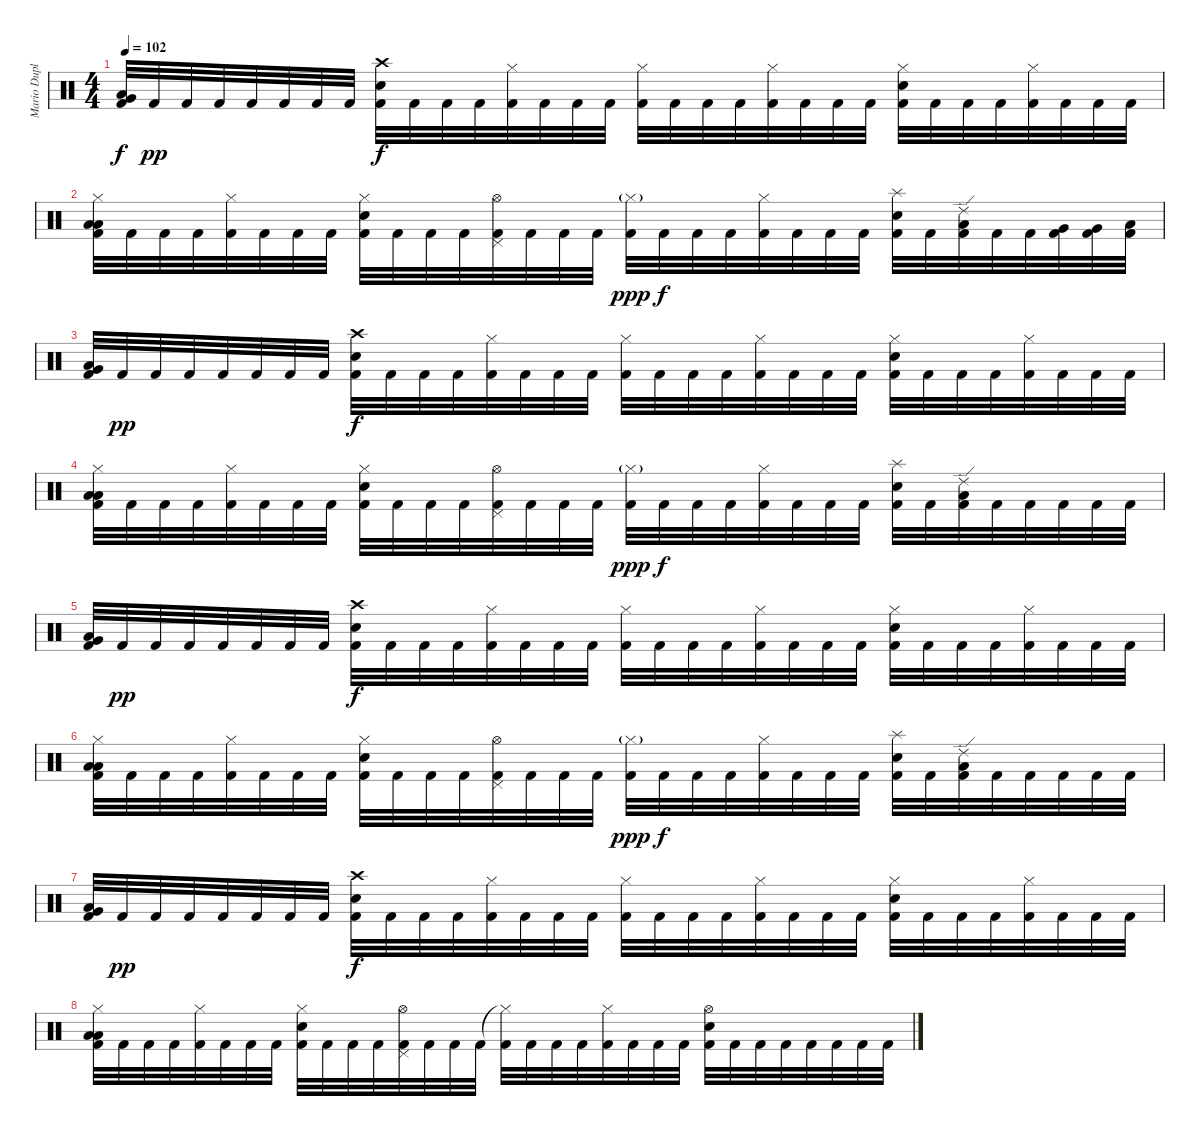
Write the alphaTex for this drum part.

\track ("Mario Duplantier" "Mario Dupl") {instrument percussion}
\staff {score}
\articulation defaults
\ts (4 4)
\tempo 102
\clef neutral
\ks c
("Low Floor Tom (hit)" "Very Low Tom (hit)" "Kick (hit) 2").32{dy f} "Kick (hit) 2".32{dy pp} "Kick (hit) 2".32 "Kick (hit) 2".32 "Kick (hit) 2".32 "Kick (hit) 2".32 "Kick (hit) 2".32 "Kick (hit) 2".32 ("Crash high (hit)" "Snare (hit) 2" "Kick (hit) 2").32{dy f} "Kick (hit) 2".32 "Kick (hit) 2".32 "Kick (hit) 2".32 ("Hi-Hat (closed)" "Kick (hit) 2").32 "Kick (hit) 2".32 "Kick (hit) 2".32 "Kick (hit) 2".32 ("Hi-Hat (closed)" "Kick (hit) 2").32 "Kick (hit) 2".32 "Kick (hit) 2".32 "Kick (hit) 2".32 ("Hi-Hat (closed)" "Kick (hit) 2").32 "Kick (hit) 2".32 "Kick (hit) 2".32 "Kick (hit) 2".32 ("Hi-Hat (closed)" "Snare (hit) 2" "Kick (hit) 2").32 "Kick (hit) 2".32 "Kick (hit) 2".32 "Kick (hit) 2".32 ("Hi-Hat (closed)" "Kick (hit) 2").32 "Kick (hit) 2".32 "Kick (hit) 2".32 "Kick (hit) 2".32 |
("Hi-Hat (closed)" "Low Floor Tom (hit)" "Low Floor Tom (hit)" "Kick (hit) 2").32 "Kick (hit) 2".32 "Kick (hit) 2".32 "Kick (hit) 2".32 ("Hi-Hat (closed)" "Kick (hit) 2").32 "Kick (hit) 2".32 "Kick (hit) 2".32 "Kick (hit) 2".32 ("Hi-Hat (closed)" "Snare (hit) 2" "Kick (hit) 2").32 "Kick (hit) 2".32 "Kick (hit) 2".32 "Kick (hit) 2".32 ("Hi-Hat (open)" "Pedal Hi-Hat (hit)" "Kick (hit) 2").32 "Kick (hit) 2".32 "Kick (hit) 2".32 "Kick (hit) 2".32 ("Hi-Hat (closed)"{g} "Kick (hit) 2").32{dy ppp} "Kick (hit) 2".32{dy f} "Kick (hit) 2".32 "Kick (hit) 2".32 ("Hi-Hat (closed)" "Kick (hit) 2").32 "Kick (hit) 2".32 "Kick (hit) 2".32 "Kick (hit) 2".32 ("Splash (hit)" "Snare (hit) 2" "Kick (hit) 2").32 "Kick (hit) 2".32 ("Ride (edge) 2" "Low Floor Tom (hit)" "Kick (hit) 2").32 "Kick (hit) 2".32 "Kick (hit) 2".32 ("Very Low Tom (hit)" "Kick (hit) 2").32 ("Very Low Tom (hit)" "Kick (hit) 2").32 ("Low Floor Tom (hit)" "Kick (hit) 2").32 |
("Low Floor Tom (hit)" "Very Low Tom (hit)" "Kick (hit) 2").32 "Kick (hit) 2".32{dy pp} "Kick (hit) 2".32 "Kick (hit) 2".32 "Kick (hit) 2".32 "Kick (hit) 2".32 "Kick (hit) 2".32 "Kick (hit) 2".32 ("Crash high (hit)" "Snare (hit) 2" "Kick (hit) 2").32{dy f} "Kick (hit) 2".32 "Kick (hit) 2".32 "Kick (hit) 2".32 ("Hi-Hat (closed)" "Kick (hit) 2").32 "Kick (hit) 2".32 "Kick (hit) 2".32 "Kick (hit) 2".32 ("Hi-Hat (closed)" "Kick (hit) 2").32 "Kick (hit) 2".32 "Kick (hit) 2".32 "Kick (hit) 2".32 ("Hi-Hat (closed)" "Kick (hit) 2").32 "Kick (hit) 2".32 "Kick (hit) 2".32 "Kick (hit) 2".32 ("Hi-Hat (closed)" "Snare (hit) 2" "Kick (hit) 2").32 "Kick (hit) 2".32 "Kick (hit) 2".32 "Kick (hit) 2".32 ("Hi-Hat (closed)" "Kick (hit) 2").32 "Kick (hit) 2".32 "Kick (hit) 2".32 "Kick (hit) 2".32 |
("Hi-Hat (closed)" "Low Floor Tom (hit)" "Low Floor Tom (hit)" "Kick (hit) 2").32 "Kick (hit) 2".32 "Kick (hit) 2".32 "Kick (hit) 2".32 ("Hi-Hat (closed)" "Kick (hit) 2").32 "Kick (hit) 2".32 "Kick (hit) 2".32 "Kick (hit) 2".32 ("Hi-Hat (closed)" "Snare (hit) 2" "Kick (hit) 2").32 "Kick (hit) 2".32 "Kick (hit) 2".32 "Kick (hit) 2".32 ("Hi-Hat (open)" "Pedal Hi-Hat (hit)" "Kick (hit) 2").32 "Kick (hit) 2".32 "Kick (hit) 2".32 "Kick (hit) 2".32 ("Hi-Hat (closed)"{g} "Kick (hit) 2").32{dy ppp} "Kick (hit) 2".32{dy f} "Kick (hit) 2".32 "Kick (hit) 2".32 ("Hi-Hat (closed)" "Kick (hit) 2").32 "Kick (hit) 2".32 "Kick (hit) 2".32 "Kick (hit) 2".32 ("Splash (hit)" "Snare (hit) 2" "Kick (hit) 2").32 "Kick (hit) 2".32 ("Ride (edge) 2" "Low Floor Tom (hit)" "Kick (hit) 2").32 "Kick (hit) 2".32 "Kick (hit) 2".32 "Kick (hit) 2".32 "Kick (hit) 2".32 "Kick (hit) 2".32 |
("Low Floor Tom (hit)" "Very Low Tom (hit)" "Kick (hit) 2").32 "Kick (hit) 2".32{dy pp} "Kick (hit) 2".32 "Kick (hit) 2".32 "Kick (hit) 2".32 "Kick (hit) 2".32 "Kick (hit) 2".32 "Kick (hit) 2".32 ("Crash high (hit)" "Snare (hit) 2" "Kick (hit) 2").32{dy f} "Kick (hit) 2".32 "Kick (hit) 2".32 "Kick (hit) 2".32 ("Hi-Hat (closed)" "Kick (hit) 2").32 "Kick (hit) 2".32 "Kick (hit) 2".32 "Kick (hit) 2".32 ("Hi-Hat (closed)" "Kick (hit) 2").32 "Kick (hit) 2".32 "Kick (hit) 2".32 "Kick (hit) 2".32 ("Hi-Hat (closed)" "Kick (hit) 2").32 "Kick (hit) 2".32 "Kick (hit) 2".32 "Kick (hit) 2".32 ("Hi-Hat (closed)" "Snare (hit) 2" "Kick (hit) 2").32 "Kick (hit) 2".32 "Kick (hit) 2".32 "Kick (hit) 2".32 ("Hi-Hat (closed)" "Kick (hit) 2").32 "Kick (hit) 2".32 "Kick (hit) 2".32 "Kick (hit) 2".32 |
("Hi-Hat (closed)" "Low Floor Tom (hit)" "Low Floor Tom (hit)" "Kick (hit) 2").32 "Kick (hit) 2".32 "Kick (hit) 2".32 "Kick (hit) 2".32 ("Hi-Hat (closed)" "Kick (hit) 2").32 "Kick (hit) 2".32 "Kick (hit) 2".32 "Kick (hit) 2".32 ("Hi-Hat (closed)" "Snare (hit) 2" "Kick (hit) 2").32 "Kick (hit) 2".32 "Kick (hit) 2".32 "Kick (hit) 2".32 ("Hi-Hat (open)" "Pedal Hi-Hat (hit)" "Kick (hit) 2").32 "Kick (hit) 2".32 "Kick (hit) 2".32 "Kick (hit) 2".32 ("Hi-Hat (closed)"{g} "Kick (hit) 2").32{dy ppp} "Kick (hit) 2".32{dy f} "Kick (hit) 2".32 "Kick (hit) 2".32 ("Hi-Hat (closed)" "Kick (hit) 2").32 "Kick (hit) 2".32 "Kick (hit) 2".32 "Kick (hit) 2".32 ("Splash (hit)" "Snare (hit) 2" "Kick (hit) 2").32 "Kick (hit) 2".32 ("Ride (edge) 2" "Low Floor Tom (hit)" "Kick (hit) 2").32 "Kick (hit) 2".32 "Kick (hit) 2".32 "Kick (hit) 2".32 "Kick (hit) 2".32 "Kick (hit) 2".32 |
("Low Floor Tom (hit)" "Very Low Tom (hit)" "Kick (hit) 2").32 "Kick (hit) 2".32{dy pp} "Kick (hit) 2".32 "Kick (hit) 2".32 "Kick (hit) 2".32 "Kick (hit) 2".32 "Kick (hit) 2".32 "Kick (hit) 2".32 ("Crash high (hit)" "Snare (hit) 2" "Kick (hit) 2").32{dy f} "Kick (hit) 2".32 "Kick (hit) 2".32 "Kick (hit) 2".32 ("Hi-Hat (closed)" "Kick (hit) 2").32 "Kick (hit) 2".32 "Kick (hit) 2".32 "Kick (hit) 2".32 ("Hi-Hat (closed)" "Kick (hit) 2").32 "Kick (hit) 2".32 "Kick (hit) 2".32 "Kick (hit) 2".32 ("Hi-Hat (closed)" "Kick (hit) 2").32 "Kick (hit) 2".32 "Kick (hit) 2".32 "Kick (hit) 2".32 ("Hi-Hat (closed)" "Snare (hit) 2" "Kick (hit) 2").32 "Kick (hit) 2".32 "Kick (hit) 2".32 "Kick (hit) 2".32 ("Hi-Hat (closed)" "Kick (hit) 2").32 "Kick (hit) 2".32 "Kick (hit) 2".32 "Kick (hit) 2".32 |
("Hi-Hat (closed)" "Low Floor Tom (hit)" "Low Floor Tom (hit)" "Kick (hit) 2").32 "Kick (hit) 2".32 "Kick (hit) 2".32 "Kick (hit) 2".32 ("Hi-Hat (closed)" "Kick (hit) 2").32 "Kick (hit) 2".32 "Kick (hit) 2".32 "Kick (hit) 2".32 ("Hi-Hat (closed)" "Snare (hit) 2" "Kick (hit) 2").32 "Kick (hit) 2".32 "Kick (hit) 2".32 "Kick (hit) 2".32 ("Hi-Hat (open)" "Pedal Hi-Hat (hit)" "Kick (hit) 2").32 "Kick (hit) 2".32 "Kick (hit) 2".32 "Kick (hit) 2".32 ("Hi-Hat (closed)"{t} "Kick (hit) 2").32 "Kick (hit) 2".32 "Kick (hit) 2".32 "Kick (hit) 2".32 ("Hi-Hat (closed)" "Kick (hit) 2").32 "Kick (hit) 2".32 "Kick (hit) 2".32 "Kick (hit) 2".32 ("Hi-Hat (open)" "Snare (hit) 2" "Kick (hit) 2").32 "Kick (hit) 2".32 "Kick (hit) 2".32 "Kick (hit) 2".32 "Kick (hit) 2".32 "Kick (hit) 2".32 "Kick (hit) 2".32 "Kick (hit) 2".32
